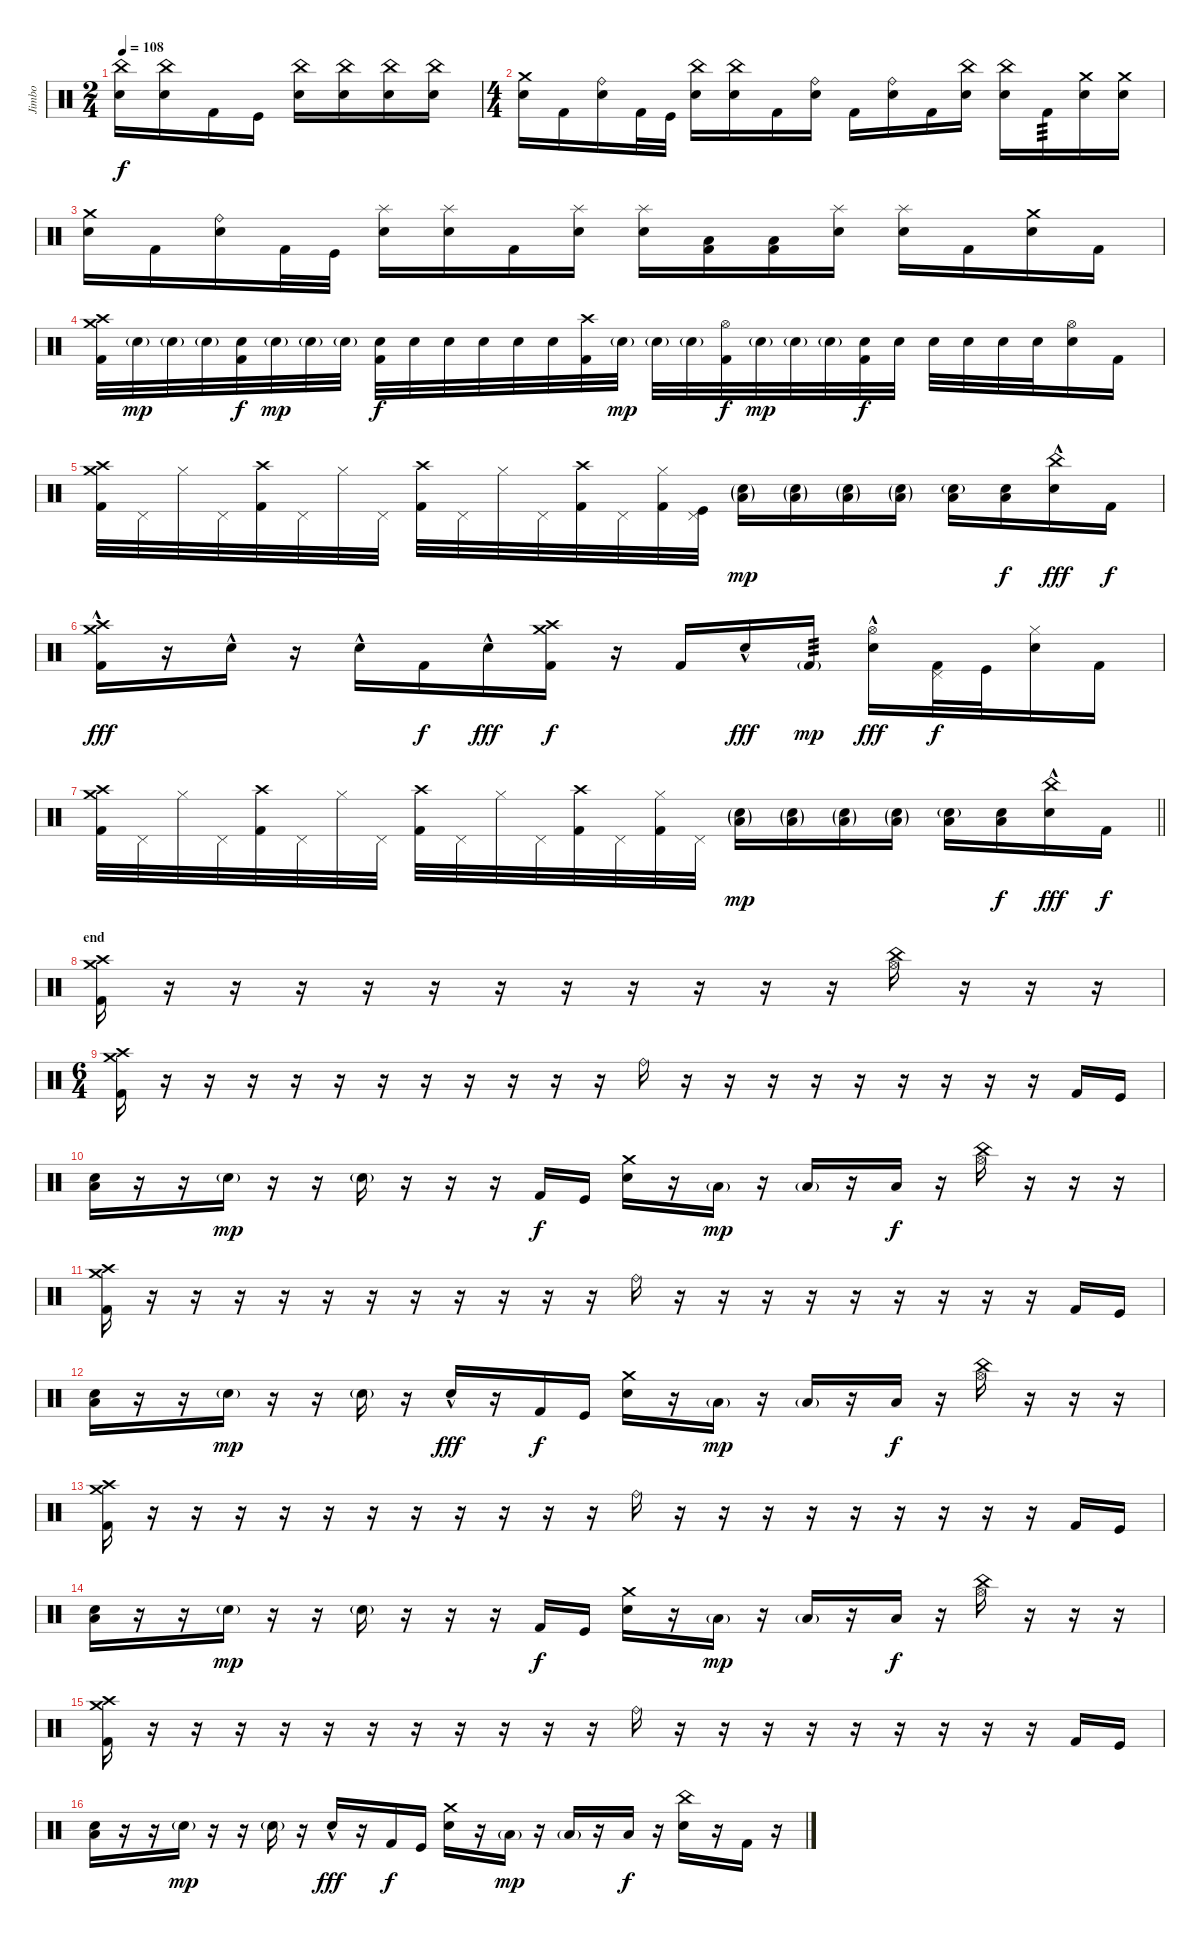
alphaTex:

\track ("Jimbo" "Jimbo") {instrument percussion}
\staff
\articulation defaults
\ts (2 4)
\tempo 108
\clef neutral
\ks c
("Electric Snare (hit)" "China (hit)").16{dy f} ("Electric Snare (hit)" "China (hit)").16 "Kick (hit) 2".16 "Kick (hit)".16 ("Electric Snare (hit)" "China (hit)").16 ("Electric Snare (hit)" "China (hit)").16 ("Electric Snare (hit)" "China (hit)").16 ("Electric Snare (hit)" "China (hit)").16 |
\ts (4 4)
("Electric Snare (hit)" "Crash medium (hit)").16 "Kick (hit) 2".16 ("Electric Snare (hit)" "Ride (bell)").16 "Kick (hit) 2".32 "Kick (hit)".32 ("Electric Snare (hit)" "China (hit)").16 ("Electric Snare (hit)" "China (hit)").16 "Kick (hit) 2".16 ("Electric Snare (hit)" "Ride (bell)").16 "Kick (hit) 2".16 ("Electric Snare (hit)" "Ride (bell)").16 "Kick (hit) 2".16 ("Electric Snare (hit)" "China (hit)").16 ("Electric Snare (hit)" "China (hit)").16 "Kick (hit) 2".16{tp 3} ("Electric Snare (hit)" "Crash medium (hit)").16 ("Electric Snare (hit)" "Crash medium (hit)").16 |
("Electric Snare (hit)" "Crash medium (hit)").16 "Kick (hit) 2".16 ("Electric Snare (hit)" "Ride (bell)").16 "Kick (hit) 2".32 "Kick (hit)".32 ("Electric Snare (hit)" "Splash (hit)").16 ("Electric Snare (hit)" "Splash (hit)").16 "Kick (hit) 2".16 ("Electric Snare (hit)" "Splash (hit)").16 ("Electric Snare (hit)" "Splash (hit)").16 ("Kick (hit) 2" "Low Tom (hit)").16 ("Kick (hit) 2" "Low Floor Tom (hit)").16 ("Electric Snare (hit)" "Splash (hit)").16 ("Electric Snare (hit)" "Splash (hit)").16 "Kick (hit) 2".16 ("Electric Snare (hit)" "Crash medium (hit)").16 "Kick (hit) 2".16 |
("Kick (hit) 2" "Crash medium (hit)" "Crash high (hit)").32 "Electric Snare (hit)"{g}.32{dy mp} "Electric Snare (hit)"{g}.32 "Electric Snare (hit)"{g}.32 ("Kick (hit) 2" "Electric Snare (hit)").32{dy f} "Electric Snare (hit)"{g}.32{dy mp} "Electric Snare (hit)"{g}.32 "Electric Snare (hit)"{g}.32 ("Kick (hit) 2" "Electric Snare (hit)").32{dy f} "Electric Snare (hit)".32 "Electric Snare (hit)".32 "Electric Snare (hit)".32 "Electric Snare (hit)".32 "Electric Snare (hit)".32 ("Kick (hit) 2" "Crash high (hit)").32 "Electric Snare (hit)"{g}.32{dy mp} "Electric Snare (hit)"{g}.32 "Electric Snare (hit)"{g}.32 ("Kick (hit) 2" "Hi-Hat (open)").32{dy f} "Electric Snare (hit)"{g}.32{dy mp} "Electric Snare (hit)"{g}.32 "Electric Snare (hit)"{g}.32 ("Kick (hit) 2" "Electric Snare (hit)").32{dy f} "Electric Snare (hit)".32 "Electric Snare (hit)".32 "Electric Snare (hit)".32 "Electric Snare (hit)".32 "Electric Snare (hit)".32 ("Electric Snare (hit)" "Hi-Hat (open)").16 "Kick (hit) 2".16 |
("Kick (hit) 2" "Crash medium (hit)" "Crash high (hit)").32 "Pedal Hi-Hat (hit)".32 "Hi-Hat (closed)".32 "Pedal Hi-Hat (hit)".32 ("Kick (hit) 2" "Crash high (hit)").32 "Pedal Hi-Hat (hit)".32 "Hi-Hat (closed)".32 "Pedal Hi-Hat (hit)".32 ("Kick (hit) 2" "Crash high (hit)").32 "Pedal Hi-Hat (hit)".32 "Hi-Hat (closed)".32 "Pedal Hi-Hat (hit)".32 ("Kick (hit) 2" "Crash high (hit)").32 "Pedal Hi-Hat (hit)".32 ("Kick (hit) 2" "Hi-Hat (closed)").32 ("Kick (hit)" "Pedal Hi-Hat (hit)").32 ("Electric Snare (hit)"{g} "Low Floor Tom (hit)"{g}).16{dy mp} ("Electric Snare (hit)"{g} "Low Floor Tom (hit)"{g}).16 ("Electric Snare (hit)"{g} "Low Floor Tom (hit)"{g}).16 ("Electric Snare (hit)"{g} "Low Floor Tom (hit)"{g}).16 ("Electric Snare (hit)"{g} "Low Floor Tom (hit)").16 ("Electric Snare (hit)" "Low Floor Tom (hit)").16{dy f} ("Electric Snare (hit)"{hac} "China (hit)").16{dy fff} "Kick (hit) 2".16{dy f} |
("Kick (hit) 2"{hac} "Crash medium (hit)" "Crash high (hit)").16{dy fff} r.16 "Electric Snare (hit)"{hac}.16 r.16 "Electric Snare (hit)"{hac}.16 "Kick (hit) 2".16{dy f} "Electric Snare (hit)"{hac}.16{dy fff} ("Kick (hit) 2" "Crash medium (hit)" "Crash high (hit)").16{dy f} r.16 "Kick (hit) 2".16 "Electric Snare (hit)"{hac}.16{dy fff} "Kick (hit) 2"{g}.16{tp 3 dy mp} ("Electric Snare (hit)"{hac} "Hi-Hat (open)").16{dy fff} ("Kick (hit) 2" "Pedal Hi-Hat (hit)").32{dy f} "Kick (hit)".32 ("Electric Snare (hit)" "Hi-Hat (closed)").16 "Kick (hit) 2".16 |
\barLineRight lightlight
("Kick (hit) 2" "Crash medium (hit)" "Crash high (hit)").32 "Pedal Hi-Hat (hit)".32 "Hi-Hat (closed)".32 "Pedal Hi-Hat (hit)".32 ("Kick (hit) 2" "Crash high (hit)").32 "Pedal Hi-Hat (hit)".32 "Hi-Hat (closed)".32 "Pedal Hi-Hat (hit)".32 ("Kick (hit) 2" "Crash high (hit)").32 "Pedal Hi-Hat (hit)".32 "Hi-Hat (closed)".32 "Pedal Hi-Hat (hit)".32 ("Kick (hit) 2" "Crash high (hit)").32 "Pedal Hi-Hat (hit)".32 ("Kick (hit) 2" "Hi-Hat (closed)").32 "Pedal Hi-Hat (hit)".32 ("Electric Snare (hit)"{g} "Low Floor Tom (hit)"{g}).16{dy mp} ("Electric Snare (hit)"{g} "Low Floor Tom (hit)"{g}).16 ("Electric Snare (hit)"{g} "Low Floor Tom (hit)"{g}).16 ("Electric Snare (hit)"{g} "Low Floor Tom (hit)"{g}).16 ("Electric Snare (hit)"{g} "Low Floor Tom (hit)").16 ("Electric Snare (hit)" "Low Floor Tom (hit)").16{dy f} ("Electric Snare (hit)"{hac} "China (hit)").16{dy fff} "Kick (hit) 2".16{dy f} |
\section ("" "end")
("Kick (hit) 2" "Crash medium (hit)" "Crash high (hit)").16 r.16 r.16 r.16 r.16 r.16 r.16 r.16 r.16 r.16 r.16 r.16 ("Hi-Hat (open)" "China (hit)").16 r.16 r.16 r.16 |
\ts (6 4)
("Kick (hit) 2" "Crash medium (hit)" "Crash high (hit)").16 r.16 r.16 r.16 r.16 r.16 r.16 r.16 r.16 r.16 r.16 r.16 "Ride (bell)".16 r.16 r.16 r.16 r.16 r.16 r.16 r.16 r.16 r.16 "Kick (hit) 2".16 "Kick (hit)".16 |
("Electric Snare (hit)" "Low Floor Tom (hit)").16 r.16 r.16 "Electric Snare (hit)"{g}.16{dy mp} r.16 r.16 "Electric Snare (hit)"{g}.16 r.16 r.16 r.16 "Kick (hit) 2".16{dy f} "Kick (hit)".16 ("Electric Snare (hit)" "Crash medium (hit)").16 r.16 "Low Tom (hit)"{g}.16{dy mp} r.16 "Low Floor Tom (hit)"{g}.16 r.16 "Low Floor Tom (hit)".16{dy f} r.16 ("Hi-Hat (open)" "China (hit)").16 r.16 r.16 r.16 |
("Kick (hit) 2" "Crash medium (hit)" "Crash high (hit)").16 r.16 r.16 r.16 r.16 r.16 r.16 r.16 r.16 r.16 r.16 r.16 "Ride (bell)".16 r.16 r.16 r.16 r.16 r.16 r.16 r.16 r.16 r.16 "Kick (hit) 2".16 "Kick (hit)".16 |
("Electric Snare (hit)" "Low Floor Tom (hit)").16 r.16 r.16 "Electric Snare (hit)"{g}.16{dy mp} r.16 r.16 "Electric Snare (hit)"{g}.16 r.16 "Electric Snare (hit)"{hac}.16{dy fff} r.16 "Kick (hit) 2".16{dy f} "Kick (hit)".16 ("Electric Snare (hit)" "Crash medium (hit)").16 r.16 "Low Tom (hit)"{g}.16{dy mp} r.16 "Low Floor Tom (hit)"{g}.16 r.16 "Low Floor Tom (hit)".16{dy f} r.16 ("Hi-Hat (open)" "China (hit)").16 r.16 r.16 r.16 |
("Kick (hit) 2" "Crash medium (hit)" "Crash high (hit)").16 r.16 r.16 r.16 r.16 r.16 r.16 r.16 r.16 r.16 r.16 r.16 "Ride (bell)".16 r.16 r.16 r.16 r.16 r.16 r.16 r.16 r.16 r.16 "Kick (hit) 2".16 "Kick (hit)".16 |
("Electric Snare (hit)" "Low Floor Tom (hit)").16 r.16 r.16 "Electric Snare (hit)"{g}.16{dy mp} r.16 r.16 "Electric Snare (hit)"{g}.16 r.16 r.16 r.16 "Kick (hit) 2".16{dy f} "Kick (hit)".16 ("Electric Snare (hit)" "Crash medium (hit)").16 r.16 "Low Tom (hit)"{g}.16{dy mp} r.16 "Low Floor Tom (hit)"{g}.16 r.16 "Low Floor Tom (hit)".16{dy f} r.16 ("Hi-Hat (open)" "China (hit)").16 r.16 r.16 r.16 |
("Kick (hit) 2" "Crash medium (hit)" "Crash high (hit)").16 r.16 r.16 r.16 r.16 r.16 r.16 r.16 r.16 r.16 r.16 r.16 "Ride (bell)".16 r.16 r.16 r.16 r.16 r.16 r.16 r.16 r.16 r.16 "Kick (hit) 2".16 "Kick (hit)".16 |
("Electric Snare (hit)" "Low Floor Tom (hit)").16 r.16 r.16 "Electric Snare (hit)"{g}.16{dy mp} r.16 r.16 "Electric Snare (hit)"{g}.16 r.16 "Electric Snare (hit)"{hac}.16{dy fff} r.16 "Kick (hit) 2".16{dy f} "Kick (hit)".16 ("Electric Snare (hit)" "Crash medium (hit)").16 r.16 "Low Tom (hit)"{g}.16{dy mp} r.16 "Low Floor Tom (hit)"{g}.16 r.16 "Low Floor Tom (hit)".16{dy f} r.16 ("Electric Snare (hit)" "China (hit)").16 r.16 "Kick (hit) 2".16 r.16
